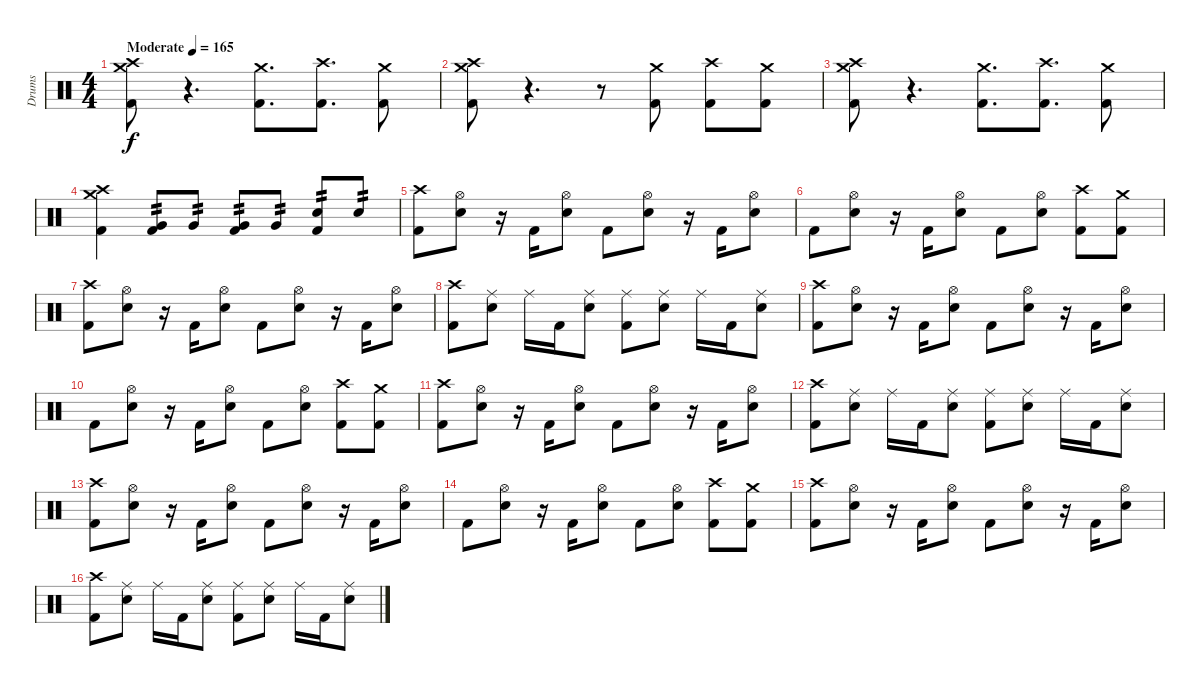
\track ("Drums" "Drums") {instrument percussion}
\staff {score}
\articulation defaults
\ts (4 4)
\tempo (165 "Moderate")
\clef neutral
\ks c
("Crash high (hit)" "Crash medium (hit)" "Kick (hit) 2").8{dy f} r.4{d} ("Crash medium (hit)" "Kick (hit) 2").8{d} ("Crash high (hit)" "Kick (hit) 2").8{d} ("Crash medium (hit)" "Kick (hit) 2").8 |
("Crash high (hit)" "Crash medium (hit)" "Kick (hit) 2").8 r.4{d} r.8 ("Crash medium (hit)" "Kick (hit) 2").8 ("Crash high (hit)" "Kick (hit) 2").8 ("Crash medium (hit)" "Kick (hit) 2").8 |
("Crash high (hit)" "Crash medium (hit)" "Kick (hit) 2").8 r.4{d} ("Crash medium (hit)" "Kick (hit) 2").8{d} ("Crash high (hit)" "Kick (hit) 2").8{d} ("Crash medium (hit)" "Kick (hit) 2").8 |
("Crash high (hit)" "Crash medium (hit)" "Kick (hit) 2").4 ("Very Low Tom (hit)" "Kick (hit) 2").8{tp 2} "Very Low Tom (hit)".8{tp 2} ("Very Low Tom (hit)" "Kick (hit) 2").8{tp 2} "Very Low Tom (hit)".8{tp 2} ("Electric Snare (hit)" "Kick (hit) 2").8{tp 2} "Electric Snare (hit)".8{tp 2} |
("Crash high (hit)" "Kick (hit) 2").8 ("Hi-Hat (open)" "Electric Snare (hit)").8 r.16 "Kick (hit) 2".16 ("Hi-Hat (open)" "Electric Snare (hit)").8 "Kick (hit) 2".8 ("Hi-Hat (open)" "Electric Snare (hit)").8 r.16 "Kick (hit) 2".16 ("Hi-Hat (open)" "Electric Snare (hit)").8 |
"Kick (hit) 2".8 ("Hi-Hat (open)" "Electric Snare (hit)").8 r.16 "Kick (hit) 2".16 ("Hi-Hat (open)" "Electric Snare (hit)").8 "Kick (hit) 2".8 ("Hi-Hat (open)" "Electric Snare (hit)").8 ("Crash high (hit)" "Kick (hit) 2").8 ("Crash medium (hit)" "Kick (hit) 2").8 |
("Crash high (hit)" "Kick (hit) 2").8 ("Hi-Hat (open)" "Electric Snare (hit)").8 r.16 "Kick (hit) 2".16 ("Hi-Hat (open)" "Electric Snare (hit)").8 "Kick (hit) 2".8 ("Hi-Hat (open)" "Electric Snare (hit)").8 r.16 "Kick (hit) 2".16 ("Hi-Hat (open)" "Electric Snare (hit)").8 |
("Crash high (hit)" "Kick (hit) 2").8 ("Ride (middle)" "Electric Snare (hit)").8 "Ride (middle)".16 "Kick (hit) 2".16 ("Ride (middle)" "Electric Snare (hit)").8 ("Ride (middle)" "Kick (hit) 2").8 ("Ride (middle)" "Electric Snare (hit)").8 "Ride (middle)".16 "Kick (hit) 2".16 ("Ride (middle)" "Electric Snare (hit)").8 |
("Crash high (hit)" "Kick (hit) 2").8 ("Hi-Hat (open)" "Electric Snare (hit)").8 r.16 "Kick (hit) 2".16 ("Hi-Hat (open)" "Electric Snare (hit)").8 "Kick (hit) 2".8 ("Hi-Hat (open)" "Electric Snare (hit)").8 r.16 "Kick (hit) 2".16 ("Hi-Hat (open)" "Electric Snare (hit)").8 |
"Kick (hit) 2".8 ("Hi-Hat (open)" "Electric Snare (hit)").8 r.16 "Kick (hit) 2".16 ("Hi-Hat (open)" "Electric Snare (hit)").8 "Kick (hit) 2".8 ("Hi-Hat (open)" "Electric Snare (hit)").8 ("Crash high (hit)" "Kick (hit) 2").8 ("Crash medium (hit)" "Kick (hit) 2").8 |
("Crash high (hit)" "Kick (hit) 2").8 ("Hi-Hat (open)" "Electric Snare (hit)").8 r.16 "Kick (hit) 2".16 ("Hi-Hat (open)" "Electric Snare (hit)").8 "Kick (hit) 2".8 ("Hi-Hat (open)" "Electric Snare (hit)").8 r.16 "Kick (hit) 2".16 ("Hi-Hat (open)" "Electric Snare (hit)").8 |
("Crash high (hit)" "Kick (hit) 2").8 ("Ride (middle)" "Electric Snare (hit)").8 "Ride (middle)".16 "Kick (hit) 2".16 ("Ride (middle)" "Electric Snare (hit)").8 ("Ride (middle)" "Kick (hit) 2").8 ("Ride (middle)" "Electric Snare (hit)").8 "Ride (middle)".16 "Kick (hit) 2".16 ("Ride (middle)" "Electric Snare (hit)").8 |
("Crash high (hit)" "Kick (hit) 2").8 ("Hi-Hat (open)" "Electric Snare (hit)").8 r.16 "Kick (hit) 2".16 ("Hi-Hat (open)" "Electric Snare (hit)").8 "Kick (hit) 2".8 ("Hi-Hat (open)" "Electric Snare (hit)").8 r.16 "Kick (hit) 2".16 ("Hi-Hat (open)" "Electric Snare (hit)").8 |
"Kick (hit) 2".8 ("Hi-Hat (open)" "Electric Snare (hit)").8 r.16 "Kick (hit) 2".16 ("Hi-Hat (open)" "Electric Snare (hit)").8 "Kick (hit) 2".8 ("Hi-Hat (open)" "Electric Snare (hit)").8 ("Crash high (hit)" "Kick (hit) 2").8 ("Crash medium (hit)" "Kick (hit) 2").8 |
("Crash high (hit)" "Kick (hit) 2").8 ("Hi-Hat (open)" "Electric Snare (hit)").8 r.16 "Kick (hit) 2".16 ("Hi-Hat (open)" "Electric Snare (hit)").8 "Kick (hit) 2".8 ("Hi-Hat (open)" "Electric Snare (hit)").8 r.16 "Kick (hit) 2".16 ("Hi-Hat (open)" "Electric Snare (hit)").8 |
("Crash high (hit)" "Kick (hit) 2").8 ("Ride (middle)" "Electric Snare (hit)").8 "Ride (middle)".16 "Kick (hit) 2".16 ("Ride (middle)" "Electric Snare (hit)").8 ("Ride (middle)" "Kick (hit) 2").8 ("Ride (middle)" "Electric Snare (hit)").8 "Ride (middle)".16 "Kick (hit) 2".16 ("Ride (middle)" "Electric Snare (hit)").8
